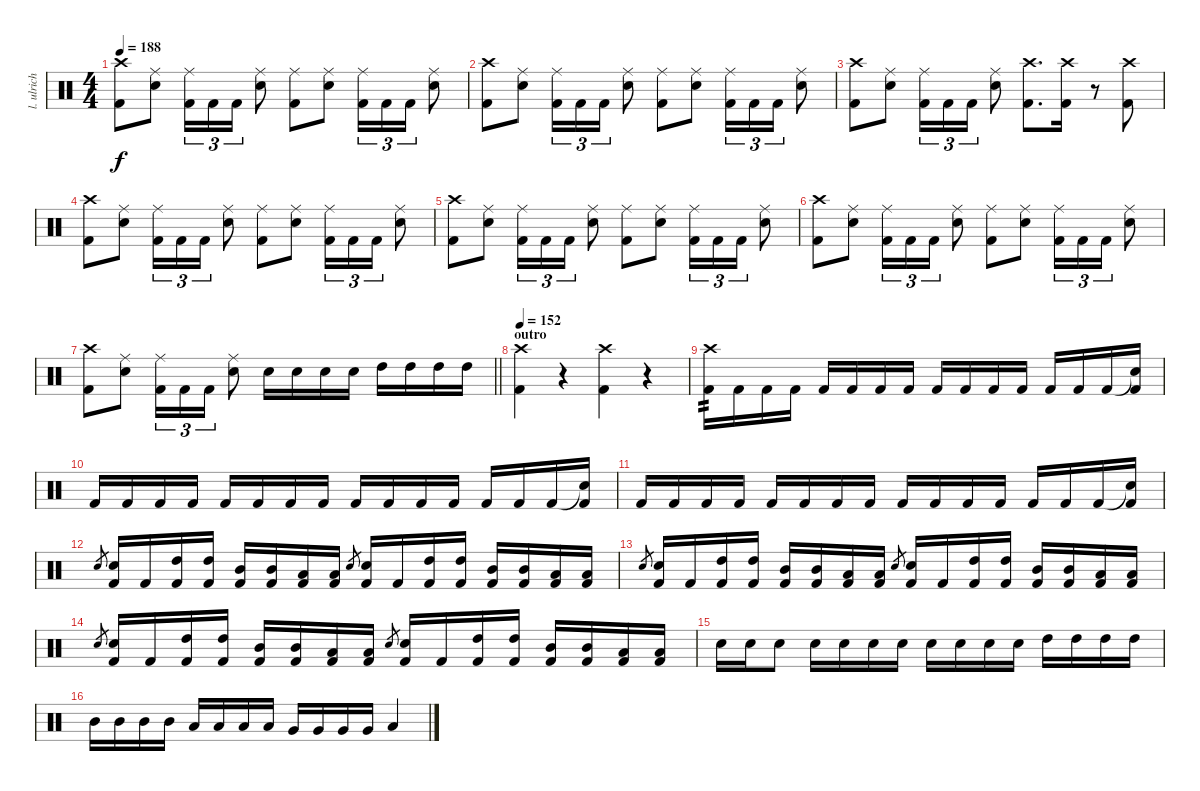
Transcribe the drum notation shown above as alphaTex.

\track ("l. ulrich - drums" "l. ulrich ") {instrument percussion}
\staff {score}
\articulation defaults
\ts (4 4)
\tempo 188
\clef neutral
\ks c
("Crash high (hit)" "Kick (hit) 2").8{dy f} ("Ride (middle)" "Snare (hit) 2").8 ("Ride (middle)" "Kick (hit) 2").16{tu (3 2)} "Kick (hit) 2".16{tu (3 2)} "Kick (hit) 2".16{tu (3 2)} ("Ride (middle)" "Snare (hit) 2").8 ("Ride (middle)" "Kick (hit) 2").8 ("Ride (middle)" "Snare (hit) 2").8 ("Ride (middle)" "Kick (hit) 2").16{tu (3 2)} "Kick (hit) 2".16{tu (3 2)} "Kick (hit) 2".16{tu (3 2)} ("Ride (middle)" "Snare (hit) 2").8 |
("Crash high (hit)" "Kick (hit) 2").8 ("Ride (middle)" "Snare (hit) 2").8 ("Ride (middle)" "Kick (hit) 2").16{tu (3 2)} "Kick (hit) 2".16{tu (3 2)} "Kick (hit) 2".16{tu (3 2)} ("Ride (middle)" "Snare (hit) 2").8 ("Ride (middle)" "Kick (hit) 2").8 ("Ride (middle)" "Snare (hit) 2").8 ("Ride (middle)" "Kick (hit) 2").16{tu (3 2)} "Kick (hit) 2".16{tu (3 2)} "Kick (hit) 2".16{tu (3 2)} ("Ride (middle)" "Snare (hit) 2").8 |
("Crash high (hit)" "Kick (hit) 2").8 ("Ride (middle)" "Snare (hit) 2").8 ("Ride (middle)" "Kick (hit) 2").16{tu (3 2)} "Kick (hit) 2".16{tu (3 2)} "Kick (hit) 2".16{tu (3 2)} ("Ride (middle)" "Snare (hit) 2").8 ("Crash high (hit)" "Kick (hit) 2").8{d} ("Crash high (hit)" "Kick (hit) 2").16 r.8 ("Crash high (hit)" "Kick (hit) 2").8 |
("Crash high (hit)" "Kick (hit) 2").8 ("Ride (middle)" "Snare (hit) 2").8 ("Ride (middle)" "Kick (hit) 2").16{tu (3 2)} "Kick (hit) 2".16{tu (3 2)} "Kick (hit) 2".16{tu (3 2)} ("Ride (middle)" "Snare (hit) 2").8 ("Ride (middle)" "Kick (hit) 2").8 ("Ride (middle)" "Snare (hit) 2").8 ("Ride (middle)" "Kick (hit) 2").16{tu (3 2)} "Kick (hit) 2".16{tu (3 2)} "Kick (hit) 2".16{tu (3 2)} ("Ride (middle)" "Snare (hit) 2").8 |
("Crash high (hit)" "Kick (hit) 2").8 ("Ride (middle)" "Snare (hit) 2").8 ("Ride (middle)" "Kick (hit) 2").16{tu (3 2)} "Kick (hit) 2".16{tu (3 2)} "Kick (hit) 2".16{tu (3 2)} ("Ride (middle)" "Snare (hit) 2").8 ("Ride (middle)" "Kick (hit) 2").8 ("Ride (middle)" "Snare (hit) 2").8 ("Ride (middle)" "Kick (hit) 2").16{tu (3 2)} "Kick (hit) 2".16{tu (3 2)} "Kick (hit) 2".16{tu (3 2)} ("Ride (middle)" "Snare (hit) 2").8 |
("Crash high (hit)" "Kick (hit) 2").8 ("Ride (middle)" "Snare (hit) 2").8 ("Ride (middle)" "Kick (hit) 2").16{tu (3 2)} "Kick (hit) 2".16{tu (3 2)} "Kick (hit) 2".16{tu (3 2)} ("Ride (middle)" "Snare (hit) 2").8 ("Ride (middle)" "Kick (hit) 2").8 ("Ride (middle)" "Snare (hit) 2").8 ("Ride (middle)" "Kick (hit) 2").16{tu (3 2)} "Kick (hit) 2".16{tu (3 2)} "Kick (hit) 2".16{tu (3 2)} ("Ride (middle)" "Snare (hit) 2").8 |
\barLineRight lightlight
("Crash high (hit)" "Kick (hit) 2").8 ("Ride (middle)" "Snare (hit) 2").8 ("Ride (middle)" "Kick (hit) 2").16{tu (3 2)} "Kick (hit) 2".16{tu (3 2)} "Kick (hit) 2".16{tu (3 2)} ("Ride (middle)" "Snare (hit) 2").8 "Snare (hit) 2".16 "Snare (hit) 2".16 "Snare (hit) 2".16 "Snare (hit) 2".16 "High Tom (hit)".16 "High Tom (hit)".16 "High Tom (hit)".16 "High Tom (hit)".16 |
\section ("" "outro")
\tempo 152
("Crash high (hit)" "Kick (hit) 2").4 r.4 ("Crash high (hit)" "Kick (hit) 2").4 r.4 |
("Crash high (hit)" "Kick (hit) 2").16{tp 2} "Kick (hit) 2".16 "Kick (hit) 2".16 "Kick (hit) 2".16 "Kick (hit) 2".16 "Kick (hit) 2".16 "Kick (hit) 2".16 "Kick (hit) 2".16 "Kick (hit) 2".16 "Kick (hit) 2".16 "Kick (hit) 2".16 "Kick (hit) 2".16 "Kick (hit) 2".16 "Kick (hit) 2".16 "Kick (hit) 2".16 ("Snare (hit)"{t} "Kick (hit) 2").16 |
"Kick (hit) 2".16 "Kick (hit) 2".16 "Kick (hit) 2".16 "Kick (hit) 2".16 "Kick (hit) 2".16 "Kick (hit) 2".16 "Kick (hit) 2".16 "Kick (hit) 2".16 "Kick (hit) 2".16 "Kick (hit) 2".16 "Kick (hit) 2".16 "Kick (hit) 2".16 "Kick (hit) 2".16 "Kick (hit) 2".16 "Kick (hit) 2".16 ("Snare (hit)"{t} "Kick (hit) 2").16 |
"Kick (hit) 2".16 "Kick (hit) 2".16 "Kick (hit) 2".16 "Kick (hit) 2".16 "Kick (hit) 2".16 "Kick (hit) 2".16 "Kick (hit) 2".16 "Kick (hit) 2".16 "Kick (hit) 2".16 "Kick (hit) 2".16 "Kick (hit) 2".16 "Kick (hit) 2".16 "Kick (hit) 2".16 "Kick (hit) 2".16 "Kick (hit) 2".16 ("Snare (hit)"{t} "Kick (hit) 2").16 |
"Snare (hit) 2".8{gr} ("Snare (hit) 2" "Kick (hit) 2").16 "Kick (hit) 2".16 ("High Tom (hit)" "Kick (hit) 2").16 ("High Tom (hit)" "Kick (hit) 2").16 ("Mid Tom (hit)" "Kick (hit) 2").16 ("Mid Tom (hit)" "Kick (hit) 2").16 ("Low Tom (hit)" "Kick (hit) 2").16 ("Low Tom (hit)" "Kick (hit) 2").16 "Snare (hit) 2".8{gr} ("Snare (hit) 2" "Kick (hit) 2").16 "Kick (hit) 2".16 ("High Tom (hit)" "Kick (hit) 2").16 ("High Tom (hit)" "Kick (hit) 2").16 ("Mid Tom (hit)" "Kick (hit) 2").16 ("Mid Tom (hit)" "Kick (hit) 2").16 ("Low Tom (hit)" "Kick (hit) 2").16 ("Low Tom (hit)" "Kick (hit) 2").16 |
"Snare (hit) 2".8{gr} ("Snare (hit) 2" "Kick (hit) 2").16 "Kick (hit) 2".16 ("High Tom (hit)" "Kick (hit) 2").16 ("High Tom (hit)" "Kick (hit) 2").16 ("Mid Tom (hit)" "Kick (hit) 2").16 ("Mid Tom (hit)" "Kick (hit) 2").16 ("Low Tom (hit)" "Kick (hit) 2").16 ("Low Tom (hit)" "Kick (hit) 2").16 "Snare (hit) 2".8{gr} ("Snare (hit) 2" "Kick (hit) 2").16 "Kick (hit) 2".16 ("High Tom (hit)" "Kick (hit) 2").16 ("High Tom (hit)" "Kick (hit) 2").16 ("Mid Tom (hit)" "Kick (hit) 2").16 ("Mid Tom (hit)" "Kick (hit) 2").16 ("Low Tom (hit)" "Kick (hit) 2").16 ("Low Tom (hit)" "Kick (hit) 2").16 |
"Snare (hit) 2".8{gr} ("Snare (hit) 2" "Kick (hit) 2").16 "Kick (hit) 2".16 ("High Tom (hit)" "Kick (hit) 2").16 ("High Tom (hit)" "Kick (hit) 2").16 ("Mid Tom (hit)" "Kick (hit) 2").16 ("Mid Tom (hit)" "Kick (hit) 2").16 ("Low Tom (hit)" "Kick (hit) 2").16 ("Low Tom (hit)" "Kick (hit) 2").16 "Snare (hit) 2".8{gr} ("Snare (hit) 2" "Kick (hit) 2").16 "Kick (hit) 2".16 ("High Tom (hit)" "Kick (hit) 2").16 ("High Tom (hit)" "Kick (hit) 2").16 ("Mid Tom (hit)" "Kick (hit) 2").16 ("Mid Tom (hit)" "Kick (hit) 2").16 ("Low Tom (hit)" "Kick (hit) 2").16 ("Low Tom (hit)" "Kick (hit) 2").16 |
"Snare (hit) 2".16 "Snare (hit) 2".16 "Snare (hit) 2".8 "Snare (hit) 2".16 "Snare (hit) 2".16 "Snare (hit) 2".16 "Snare (hit) 2".16 "Snare (hit) 2".16 "Snare (hit) 2".16 "Snare (hit) 2".16 "Snare (hit) 2".16 "High Tom (hit)".16 "High Tom (hit)".16 "High Tom (hit)".16 "High Tom (hit)".16 |
"Mid Tom (hit)".16 "Mid Tom (hit)".16 "Mid Tom (hit)".16 "Mid Tom (hit)".16 "Low Tom (hit)".16 "Low Tom (hit)".16 "Low Tom (hit)".16 "Low Tom (hit)".16 "Very Low Tom (hit)".16 "Very Low Tom (hit)".16 "Very Low Tom (hit)".16 "Very Low Tom (hit)".16 "Low Floor Tom (hit)".4
